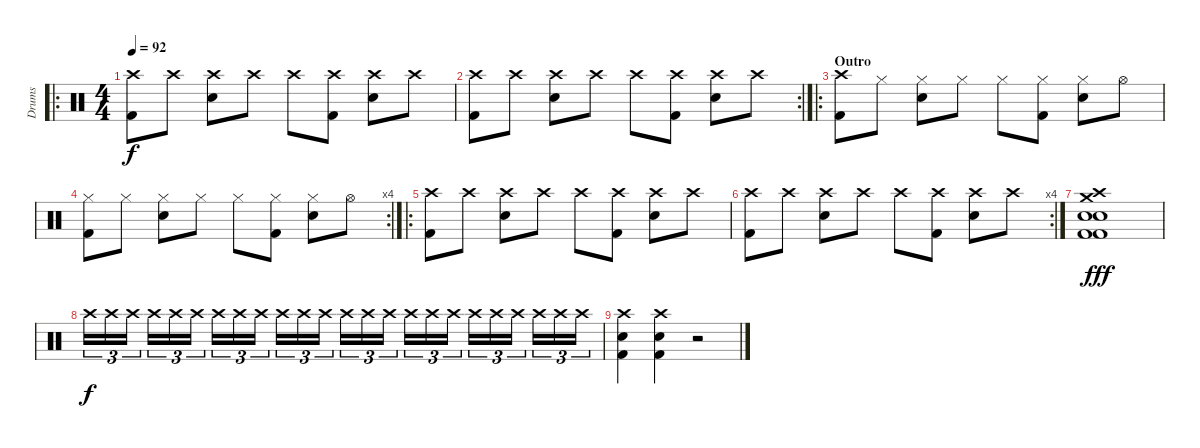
\track ("Drums" "Drums") {instrument percussion}
\staff {score}
\articulation defaults
\ro
\ts (4 4)
\tempo 92
\clef neutral
\ks c
("Crash high (hit)" "Kick (hit) 2").8{dy f} "Crash high (hit)".8 ("Crash high (hit)" "Electric Snare (hit)").8 "Crash high (hit)".8 "Crash high (hit)".8 ("Crash high (hit)" "Kick (hit) 2").8 ("Crash high (hit)" "Electric Snare (hit)").8 "Crash high (hit)".8 |
\rc 2
("Crash high (hit)" "Kick (hit) 2").8 "Crash high (hit)".8 ("Crash high (hit)" "Electric Snare (hit)").8 "Crash high (hit)".8 "Crash high (hit)".8 ("Crash high (hit)" "Kick (hit) 2").8 ("Crash high (hit)" "Electric Snare (hit)").8 "Crash high (hit)".8 |
\ro
\section ("" "Outro")
("Crash high (hit)" "Kick (hit) 2").8 "Hi-Hat (closed)".8 ("Hi-Hat (closed)" "Electric Snare (hit)").8 "Hi-Hat (closed)".8 "Hi-Hat (closed)".8 ("Hi-Hat (closed)" "Kick (hit) 2").8 ("Hi-Hat (closed)" "Electric Snare (hit)").8 "Hi-Hat (open)".8 |
\rc 4
("Hi-Hat (closed)" "Kick (hit) 2").8 "Hi-Hat (closed)".8 ("Hi-Hat (closed)" "Electric Snare (hit)").8 "Hi-Hat (closed)".8 "Hi-Hat (closed)".8 ("Hi-Hat (closed)" "Kick (hit) 2").8 ("Hi-Hat (closed)" "Electric Snare (hit)").8 "Hi-Hat (open)".8 |
\ro
("Crash high (hit)" "Kick (hit) 2").8 "Crash high (hit)".8 ("Crash high (hit)" "Electric Snare (hit)").8 "Crash high (hit)".8 "Crash high (hit)".8 ("Crash high (hit)" "Kick (hit) 2").8 ("Crash high (hit)" "Electric Snare (hit)").8 "Crash high (hit)".8 |
\rc 4
("Crash high (hit)" "Kick (hit) 2").8 "Crash high (hit)".8 ("Crash high (hit)" "Electric Snare (hit)").8 "Crash high (hit)".8 "Crash high (hit)".8 ("Crash high (hit)" "Kick (hit) 2").8 ("Crash high (hit)" "Electric Snare (hit)").8 "Crash high (hit)".8 |
("Crash high (hit)" "Crash medium (hit)" "Electric Snare (hit)" "Kick (hit) 2" "Kick (hit) 2" "Electric Snare (hit)").1{dy fff} |
"Crash high (hit)".16{tu (3 2) dy f} "Crash high (hit)".16{tu (3 2)} "Crash high (hit)".16{tu (3 2)} "Crash high (hit)".16{tu (3 2)} "Crash high (hit)".16{tu (3 2)} "Crash high (hit)".16{tu (3 2)} "Crash high (hit)".16{tu (3 2)} "Crash high (hit)".16{tu (3 2)} "Crash high (hit)".16{tu (3 2)} "Crash high (hit)".16{tu (3 2)} "Crash high (hit)".16{tu (3 2)} "Crash high (hit)".16{tu (3 2)} "Crash high (hit)".16{tu (3 2)} "Crash high (hit)".16{tu (3 2)} "Crash high (hit)".16{tu (3 2)} "Crash high (hit)".16{tu (3 2)} "Crash high (hit)".16{tu (3 2)} "Crash high (hit)".16{tu (3 2)} "Crash high (hit)".16{tu (3 2)} "Crash high (hit)".16{tu (3 2)} "Crash high (hit)".16{tu (3 2)} "Crash high (hit)".16{tu (3 2)} "Crash high (hit)".16{tu (3 2)} "Crash high (hit)".16{tu (3 2)} |
("Crash high (hit)" "Electric Snare (hit)" "Kick (hit) 2").4 ("Crash high (hit)" "Electric Snare (hit)" "Kick (hit) 2").4 r.2
